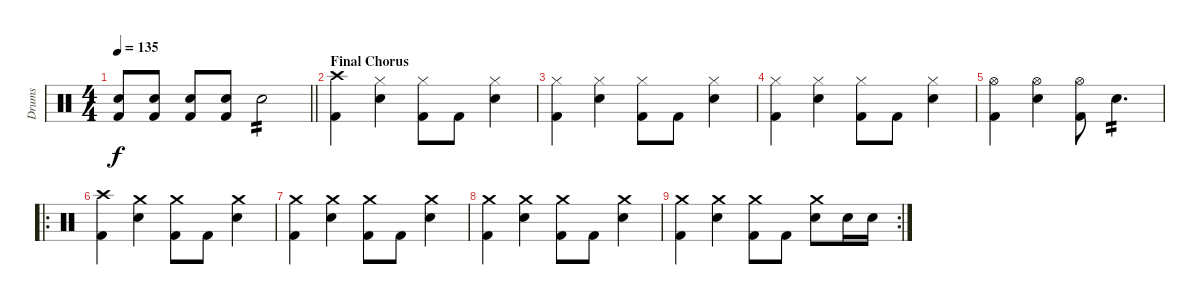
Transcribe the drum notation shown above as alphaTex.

\track ("Drums" "Drums") {instrument percussion}
\staff {score}
\articulation defaults
\ts (4 4)
\tempo 135
\clef neutral
\barLineRight lightlight
\ks c
("Electric Snare (hit)" "Kick (hit) 2").8{dy f} ("Electric Snare (hit)" "Kick (hit) 2").8 ("Electric Snare (hit)" "Kick (hit) 2").8 ("Electric Snare (hit)" "Kick (hit) 2").8 "Electric Snare (hit)".2{tp 2} |
\section ("" "Final Chorus")
("Crash high (hit)" "Kick (hit) 2").4 ("Hi-Hat (closed)" "Electric Snare (hit)").4 ("Hi-Hat (closed)" "Kick (hit) 2").8 "Kick (hit) 2".8 ("Hi-Hat (closed)" "Electric Snare (hit)").4 |
("Hi-Hat (closed)" "Kick (hit) 2").4 ("Hi-Hat (closed)" "Electric Snare (hit)").4 ("Hi-Hat (closed)" "Kick (hit) 2").8 "Kick (hit) 2".8 ("Hi-Hat (closed)" "Electric Snare (hit)").4 |
("Hi-Hat (closed)" "Kick (hit) 2").4 ("Hi-Hat (closed)" "Electric Snare (hit)").4 ("Hi-Hat (closed)" "Kick (hit) 2").8 "Kick (hit) 2".8 ("Hi-Hat (closed)" "Electric Snare (hit)").4 |
("Hi-Hat (open)" "Kick (hit) 2").4 ("Hi-Hat (open)" "Electric Snare (hit)").4 ("Hi-Hat (open)" "Kick (hit) 2").8 "Electric Snare (hit)".4{d tp 2} |
\ro
("Crash high (hit)" "Kick (hit) 2").4 ("Crash medium (hit)" "Electric Snare (hit)").4 ("Crash medium (hit)" "Kick (hit) 2").8 "Kick (hit) 2".8 ("Crash medium (hit)" "Electric Snare (hit)").4 |
("Crash medium (hit)" "Kick (hit) 2").4 ("Crash medium (hit)" "Electric Snare (hit)").4 ("Crash medium (hit)" "Kick (hit) 2").8 "Kick (hit) 2".8 ("Crash medium (hit)" "Electric Snare (hit)").4 |
("Crash medium (hit)" "Kick (hit) 2").4 ("Crash medium (hit)" "Electric Snare (hit)").4 ("Crash medium (hit)" "Kick (hit) 2").8 "Kick (hit) 2".8 ("Crash medium (hit)" "Electric Snare (hit)").4 |
\rc 2
("Crash medium (hit)" "Kick (hit) 2").4 ("Crash medium (hit)" "Electric Snare (hit)").4 ("Crash medium (hit)" "Kick (hit) 2").8 "Kick (hit) 2".8 ("Crash medium (hit)" "Electric Snare (hit)").8 "Electric Snare (hit)".16 "Electric Snare (hit)".16
